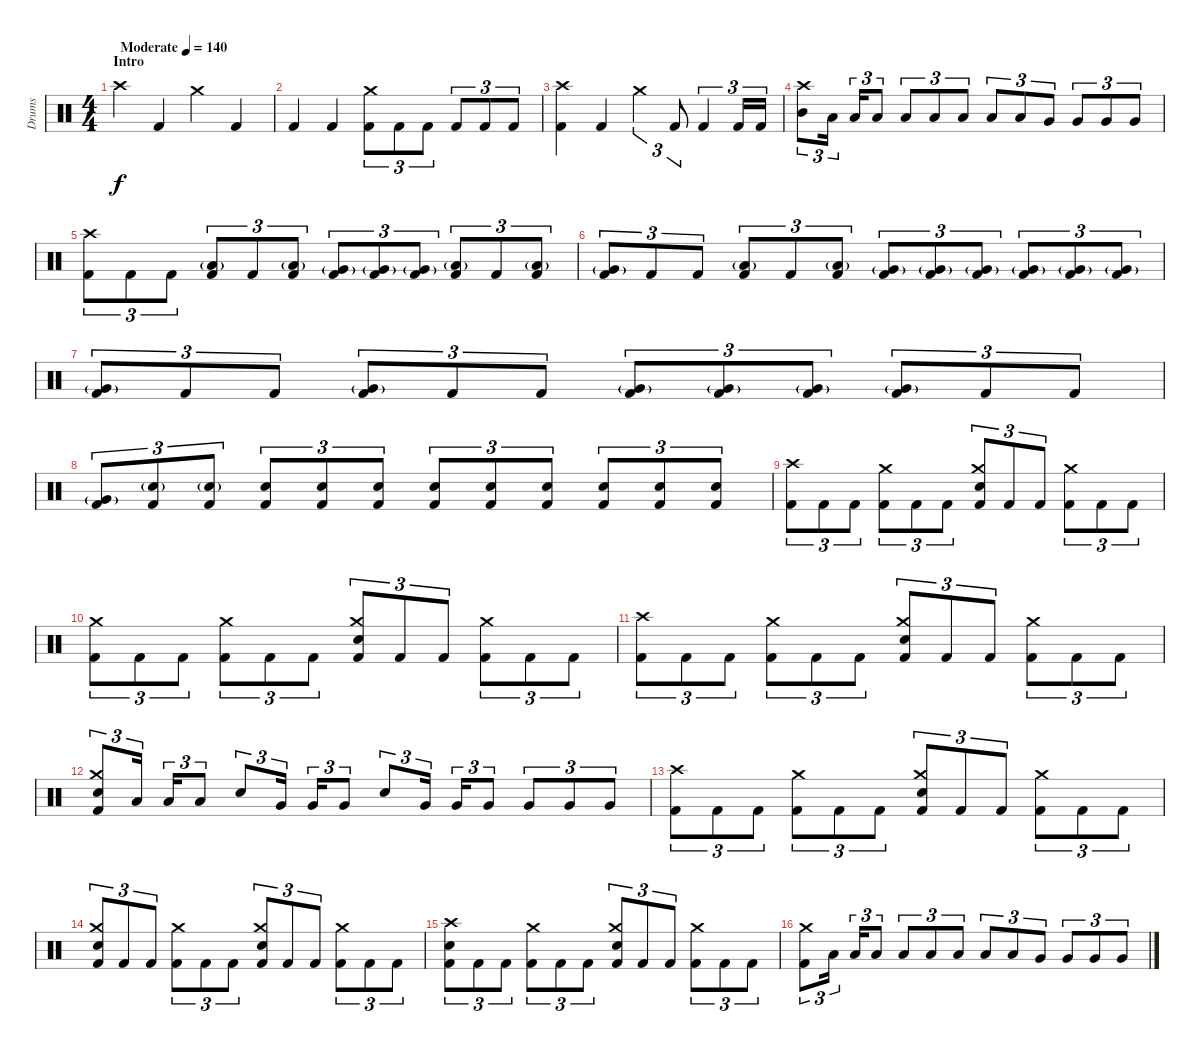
\track ("Drums" "Drums") {instrument percussion}
\staff {score}
\articulation defaults
\ts (4 4)
\section ("" "Intro")
\tempo (140 "Moderate")
\clef neutral
\ks c "Crash high (hit)".4{dy f} "Kick (hit) 2".4 "Crash medium (hit)".4 "Kick (hit) 2".4
|
"Kick (hit) 2".4 "Kick (hit) 2".4 ("Crash medium (hit)" "Kick (hit) 2").8{tu (3 2)} "Kick (hit) 2".8{tu (3 2)} "Kick (hit) 2".8{tu (3 2)} "Kick (hit) 2".8{tu (3 2)} "Kick (hit) 2".8{tu (3 2)} "Kick (hit) 2".8{tu (3 2)} |
("Crash high (hit)" "Kick (hit) 2").4 "Kick (hit) 2".4 "Crash medium (hit)".4{tu (3 2)} "Kick (hit) 2".8{tu (3 2)} "Kick (hit) 2".4{tu (3 2)} "Kick (hit) 2".16{tu (3 2)} "Kick (hit) 2".16{tu (3 2)} |
("Crash high (hit)" "Mid Tom (hit)").8{tu (3 2)} "Low Tom (hit)".16{tu (3 2)} "Low Tom (hit)".16{tu (3 2)} "Low Tom (hit)".8{tu (3 2)} "Low Tom (hit)".8{tu (3 2)} "Low Tom (hit)".8{tu (3 2)} "Low Tom (hit)".8{tu (3 2)} "Low Tom (hit)".8{tu (3 2)} "Low Tom (hit)".8{tu (3 2)} "Very Low Tom (hit)".8{tu (3 2)} "Very Low Tom (hit)".8{tu (3 2)} "Very Low Tom (hit)".8{tu (3 2)} "Very Low Tom (hit)".8{tu (3 2)} |
("Crash high (hit)" "Kick (hit) 2").8{tu (3 2)} "Kick (hit) 2".8{tu (3 2)} "Kick (hit) 2".8{tu (3 2)} ("Low Tom (hit)"{g} "Kick (hit) 2").8{tu (3 2)} "Kick (hit) 2".8{tu (3 2)} ("Low Tom (hit)"{g} "Kick (hit) 2").8{tu (3 2)} ("Very Low Tom (hit)"{g} "Kick (hit) 2").8{tu (3 2)} ("Very Low Tom (hit)"{g} "Kick (hit) 2").8{tu (3 2)} ("Very Low Tom (hit)"{g} "Kick (hit) 2").8{tu (3 2)} ("Low Tom (hit)"{g} "Kick (hit) 2").8{tu (3 2)} "Kick (hit) 2".8{tu (3 2)} ("Low Tom (hit)"{g} "Kick (hit) 2").8{tu (3 2)} |
("Very Low Tom (hit)"{g} "Kick (hit) 2").8{tu (3 2)} "Kick (hit) 2".8{tu (3 2)} "Kick (hit) 2".8{tu (3 2)} ("Low Tom (hit)"{g} "Kick (hit) 2").8{tu (3 2)} "Kick (hit) 2".8{tu (3 2)} ("Low Tom (hit)"{g} "Kick (hit) 2").8{tu (3 2)} ("Very Low Tom (hit)"{g} "Kick (hit) 2").8{tu (3 2)} ("Very Low Tom (hit)"{g} "Kick (hit) 2").8{tu (3 2)} ("Very Low Tom (hit)"{g} "Kick (hit) 2").8{tu (3 2)} ("Very Low Tom (hit)"{g} "Kick (hit) 2").8{tu (3 2)} ("Very Low Tom (hit)"{g} "Kick (hit) 2").8{tu (3 2)} ("Very Low Tom (hit)"{g} "Kick (hit) 2").8{tu (3 2)} |
("Very Low Tom (hit)"{g} "Kick (hit) 2").8{tu (3 2)} "Kick (hit) 2".8{tu (3 2)} "Kick (hit) 2".8{tu (3 2)} ("Very Low Tom (hit)"{g} "Kick (hit) 2").8{tu (3 2)} "Kick (hit) 2".8{tu (3 2)} "Kick (hit) 2".8{tu (3 2)} ("Very Low Tom (hit)"{g} "Kick (hit) 2").8{tu (3 2)} ("Very Low Tom (hit)"{g} "Kick (hit) 2").8{tu (3 2)} ("Very Low Tom (hit)"{g} "Kick (hit) 2").8{tu (3 2)} ("Very Low Tom (hit)"{g} "Kick (hit) 2").8{tu (3 2)} "Kick (hit) 2".8{tu (3 2)} "Kick (hit) 2".8{tu (3 2)} |
("Very Low Tom (hit)"{g} "Kick (hit) 2").8{tu (3 2)} ("Snare (hit) 2"{g} "Kick (hit) 2").8{tu (3 2)} ("Snare (hit) 2"{g} "Kick (hit) 2").8{tu (3 2)} ("Snare (hit) 2" "Kick (hit) 2").8{tu (3 2)} ("Snare (hit) 2" "Kick (hit) 2").8{tu (3 2)} ("Snare (hit) 2" "Kick (hit) 2").8{tu (3 2)} ("Snare (hit) 2" "Kick (hit) 2").8{tu (3 2)} ("Snare (hit) 2" "Kick (hit) 2").8{tu (3 2)} ("Snare (hit) 2" "Kick (hit) 2").8{tu (3 2)} ("Snare (hit) 2" "Kick (hit) 2").8{tu (3 2)} ("Snare (hit) 2" "Kick (hit) 2").8{tu (3 2)} ("Snare (hit) 2" "Kick (hit) 2").8{tu (3 2)} |
("Crash high (hit)" "Kick (hit) 2").8{tu (3 2)} "Kick (hit) 2".8{tu (3 2)} "Kick (hit) 2".8{tu (3 2)} ("Crash medium (hit)" "Kick (hit) 2").8{tu (3 2)} "Kick (hit) 2".8{tu (3 2)} "Kick (hit) 2".8{tu (3 2)} ("Crash medium (hit)" "Snare (hit) 2" "Kick (hit) 2").8{tu (3 2)} "Kick (hit) 2".8{tu (3 2)} "Kick (hit) 2".8{tu (3 2)} ("Crash medium (hit)" "Kick (hit) 2").8{tu (3 2)} "Kick (hit) 2".8{tu (3 2)} "Kick (hit) 2".8{tu (3 2)} |
("Crash medium (hit)" "Kick (hit) 2").8{tu (3 2)} "Kick (hit) 2".8{tu (3 2)} "Kick (hit) 2".8{tu (3 2)} ("Crash medium (hit)" "Kick (hit) 2").8{tu (3 2)} "Kick (hit) 2".8{tu (3 2)} "Kick (hit) 2".8{tu (3 2)} ("Crash medium (hit)" "Snare (hit) 2" "Kick (hit) 2").8{tu (3 2)} "Kick (hit) 2".8{tu (3 2)} "Kick (hit) 2".8{tu (3 2)} ("Crash medium (hit)" "Kick (hit) 2").8{tu (3 2)} "Kick (hit) 2".8{tu (3 2)} "Kick (hit) 2".8{tu (3 2)} |
("Crash high (hit)" "Kick (hit) 2").8{tu (3 2)} "Kick (hit) 2".8{tu (3 2)} "Kick (hit) 2".8{tu (3 2)} ("Crash medium (hit)" "Kick (hit) 2").8{tu (3 2)} "Kick (hit) 2".8{tu (3 2)} "Kick (hit) 2".8{tu (3 2)} ("Crash medium (hit)" "Snare (hit) 2" "Kick (hit) 2").8{tu (3 2)} "Kick (hit) 2".8{tu (3 2)} "Kick (hit) 2".8{tu (3 2)} ("Crash medium (hit)" "Kick (hit) 2").8{tu (3 2)} "Kick (hit) 2".8{tu (3 2)} "Kick (hit) 2".8{tu (3 2)} |
("Crash medium (hit)" "Snare (hit) 2" "Kick (hit) 2").8{tu (3 2)} "Low Tom (hit)".16{tu (3 2)} "Low Tom (hit)".16{tu (3 2)} "Low Tom (hit)".8{tu (3 2)} "Snare (hit) 2".8{tu (3 2)} "Very Low Tom (hit)".16{tu (3 2)} "Very Low Tom (hit)".16{tu (3 2)} "Very Low Tom (hit)".8{tu (3 2)} "Snare (hit) 2".8{tu (3 2)} "Very Low Tom (hit)".16{tu (3 2)} "Very Low Tom (hit)".16{tu (3 2)} "Very Low Tom (hit)".8{tu (3 2)} "Very Low Tom (hit)".8{tu (3 2)} "Very Low Tom (hit)".8{tu (3 2)} "Very Low Tom (hit)".8{tu (3 2)} |
("Crash high (hit)" "Kick (hit) 2").8{tu (3 2)} "Kick (hit) 2".8{tu (3 2)} "Kick (hit) 2".8{tu (3 2)} ("Crash medium (hit)" "Kick (hit) 2").8{tu (3 2)} "Kick (hit) 2".8{tu (3 2)} "Kick (hit) 2".8{tu (3 2)} ("Crash medium (hit)" "Snare (hit) 2" "Kick (hit) 2").8{tu (3 2)} "Kick (hit) 2".8{tu (3 2)} "Kick (hit) 2".8{tu (3 2)} ("Crash medium (hit)" "Kick (hit) 2").8{tu (3 2)} "Kick (hit) 2".8{tu (3 2)} "Kick (hit) 2".8{tu (3 2)} |
("Crash medium (hit)" "Snare (hit) 2" "Kick (hit) 2").8{tu (3 2)} "Kick (hit) 2".8{tu (3 2)} "Kick (hit) 2".8{tu (3 2)} ("Crash medium (hit)" "Kick (hit) 2").8{tu (3 2)} "Kick (hit) 2".8{tu (3 2)} "Kick (hit) 2".8{tu (3 2)} ("Crash medium (hit)" "Snare (hit) 2" "Kick (hit) 2").8{tu (3 2)} "Kick (hit) 2".8{tu (3 2)} "Kick (hit) 2".8{tu (3 2)} ("Crash medium (hit)" "Kick (hit) 2").8{tu (3 2)} "Kick (hit) 2".8{tu (3 2)} "Kick (hit) 2".8{tu (3 2)} |
("Crash high (hit)" "Snare (hit) 2" "Kick (hit) 2").8{tu (3 2)} "Kick (hit) 2".8{tu (3 2)} "Kick (hit) 2".8{tu (3 2)} ("Crash medium (hit)" "Kick (hit) 2").8{tu (3 2)} "Kick (hit) 2".8{tu (3 2)} "Kick (hit) 2".8{tu (3 2)} ("Crash medium (hit)" "Snare (hit) 2" "Kick (hit) 2").8{tu (3 2)} "Kick (hit) 2".8{tu (3 2)} "Kick (hit) 2".8{tu (3 2)} ("Crash medium (hit)" "Kick (hit) 2").8{tu (3 2)} "Kick (hit) 2".8{tu (3 2)} "Kick (hit) 2".8{tu (3 2)} |
("Crash medium (hit)" "Kick (hit) 2").8{tu (3 2)} "Low Tom (hit)".16{tu (3 2)} "Low Tom (hit)".16{tu (3 2)} "Low Tom (hit)".8{tu (3 2)} "Low Tom (hit)".8{tu (3 2)} "Low Tom (hit)".8{tu (3 2)} "Low Tom (hit)".8{tu (3 2)} "Low Tom (hit)".8{tu (3 2)} "Low Tom (hit)".8{tu (3 2)} "Very Low Tom (hit)".8{tu (3 2)} "Very Low Tom (hit)".8{tu (3 2)} "Very Low Tom (hit)".8{tu (3 2)} "Very Low Tom (hit)".8{tu (3 2)}
